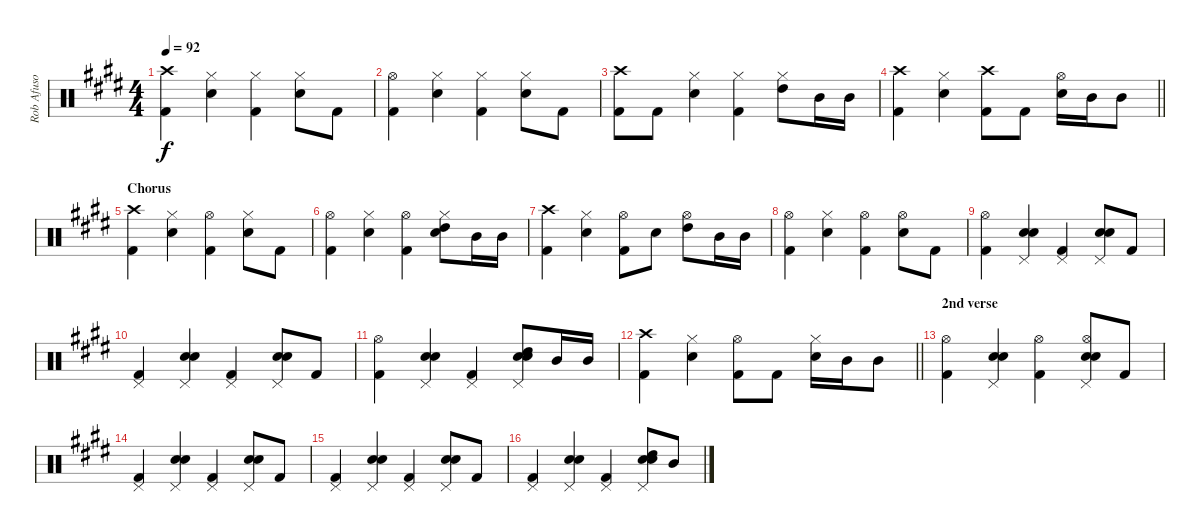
\track ("Rob Afuso" "Rob Afuso") {instrument percussion}
\staff {score}
\articulation defaults
\ts (4 4)
\tempo 92
\clef neutral
\ks e
("Crash high (hit)" "Kick (hit) 2").4{dy f} ("Hi-Hat (closed)" "Snare (hit) 2").4 ("Hi-Hat (closed)" "Kick (hit) 2").4 ("Hi-Hat (closed)" "Snare (hit) 2").8 "Kick (hit) 2".8 |
("Hi-Hat (open)" "Kick (hit) 2").4 ("Hi-Hat (closed)" "Snare (hit) 2").4 ("Hi-Hat (closed)" "Kick (hit) 2").4 ("Hi-Hat (closed)" "Snare (hit) 2").8 "Kick (hit) 2".8 |
("Crash high (hit)" "Kick (hit) 2").8 "Kick (hit) 2".8 ("Hi-Hat (closed)" "Snare (hit) 2").4 ("Hi-Hat (closed)" "Kick (hit) 2").4 ("Hi-Hat (closed)" "High Tom (hit)").8 "Mid Tom (hit)".16 "Mid Tom (hit)".16 |
\barLineRight lightlight
("Crash high (hit)" "Kick (hit) 2").4 ("Hi-Hat (closed)" "Snare (hit) 2").4 ("Crash high (hit)" "Kick (hit) 2").8 "Kick (hit) 2".8 ("Hi-Hat (open)" "Snare (hit) 2").16 "Mid Tom (hit)".16 "Mid Tom (hit)".8 |
\section ("" "Chorus")
("Crash high (hit)" "Kick (hit) 2").4 ("Hi-Hat (closed)" "Snare (hit) 2").4 ("Hi-Hat (open)" "Kick (hit) 2").4 ("Hi-Hat (closed)" "Snare (hit) 2").8 "Kick (hit) 2".8 |
("Hi-Hat (open)" "Kick (hit) 2").4 ("Hi-Hat (closed)" "Snare (hit) 2").4 ("Hi-Hat (open)" "Kick (hit) 2").4 ("Hi-Hat (closed)" "Snare (hit) 2" "High Tom (hit)").8 "Mid Tom (hit)".16 "Mid Tom (hit)".16 |
("Crash high (hit)" "Kick (hit) 2").4 ("Hi-Hat (closed)" "Snare (hit) 2").4 ("Hi-Hat (open)" "Kick (hit) 2").8 "Snare (hit) 2".8 ("Hi-Hat (open)" "High Tom (hit)").8 "Mid Tom (hit)".16 "Mid Tom (hit)".16 |
("Hi-Hat (open)" "Kick (hit) 2").4 ("Hi-Hat (closed)" "Snare (hit) 2").4 ("Hi-Hat (open)" "Kick (hit) 2").4 ("Hi-Hat (open)" "Snare (hit) 2").8 "Kick (hit) 2".8 |
("Hi-Hat (open)" "Kick (hit) 2").4 ("Snare (hit) 2" "Electric Snare (hit)" "Pedal Hi-Hat (hit)").4 ("Kick (hit) 2" "Pedal Hi-Hat (hit)").4 ("Snare (hit) 2" "Electric Snare (hit)" "Pedal Hi-Hat (hit)").8 "Kick (hit) 2".8 |
("Kick (hit) 2" "Pedal Hi-Hat (hit)").4 ("Snare (hit) 2" "Electric Snare (hit)" "Pedal Hi-Hat (hit)").4 ("Kick (hit) 2" "Pedal Hi-Hat (hit)").4 ("Snare (hit) 2" "Electric Snare (hit)" "Pedal Hi-Hat (hit)").8 "Kick (hit) 2".8 |
("Hi-Hat (open)" "Kick (hit) 2").4 ("Snare (hit) 2" "Electric Snare (hit)" "Pedal Hi-Hat (hit)").4 ("Kick (hit) 2" "Pedal Hi-Hat (hit)").4 ("Snare (hit) 2" "Electric Snare (hit)" "High Tom (hit)" "Pedal Hi-Hat (hit)").8 "Mid Tom (hit)".16 "Mid Tom (hit)".16 |
\barLineRight lightlight
("Crash high (hit)" "Kick (hit) 2").4 ("Hi-Hat (closed)" "Snare (hit) 2").4 ("Hi-Hat (open)" "Kick (hit) 2").8 "Kick (hit) 2".8 ("Hi-Hat (closed)" "Snare (hit) 2").16 "Mid Tom (hit)".16 "Mid Tom (hit)".8 |
\section ("" "2nd verse")
("Hi-Hat (open)" "Kick (hit) 2").4 ("Snare (hit) 2" "Electric Snare (hit)" "Pedal Hi-Hat (hit)").4 ("Hi-Hat (open)" "Kick (hit) 2").4 ("Hi-Hat (open)" "Snare (hit) 2" "Electric Snare (hit)" "Pedal Hi-Hat (hit)").8 "Kick (hit) 2".8 |
("Kick (hit) 2" "Pedal Hi-Hat (hit)").4 ("Snare (hit) 2" "Electric Snare (hit)" "Pedal Hi-Hat (hit)").4 ("Kick (hit) 2" "Pedal Hi-Hat (hit)").4 ("Snare (hit) 2" "Electric Snare (hit)" "Pedal Hi-Hat (hit)").8 "Kick (hit) 2".8 |
("Kick (hit) 2" "Pedal Hi-Hat (hit)").4 ("Snare (hit) 2" "Electric Snare (hit)" "Pedal Hi-Hat (hit)").4 ("Kick (hit) 2" "Pedal Hi-Hat (hit)").4 ("Snare (hit) 2" "Electric Snare (hit)" "Pedal Hi-Hat (hit)").8 "Kick (hit) 2".8 |
("Kick (hit) 2" "Pedal Hi-Hat (hit)").4 ("Snare (hit) 2" "Electric Snare (hit)" "Pedal Hi-Hat (hit)").4 ("Kick (hit) 2" "Pedal Hi-Hat (hit)").4 ("Snare (hit) 2" "Electric Snare (hit)" "High Tom (hit)" "Pedal Hi-Hat (hit)").8 "Mid Tom (hit)".8
